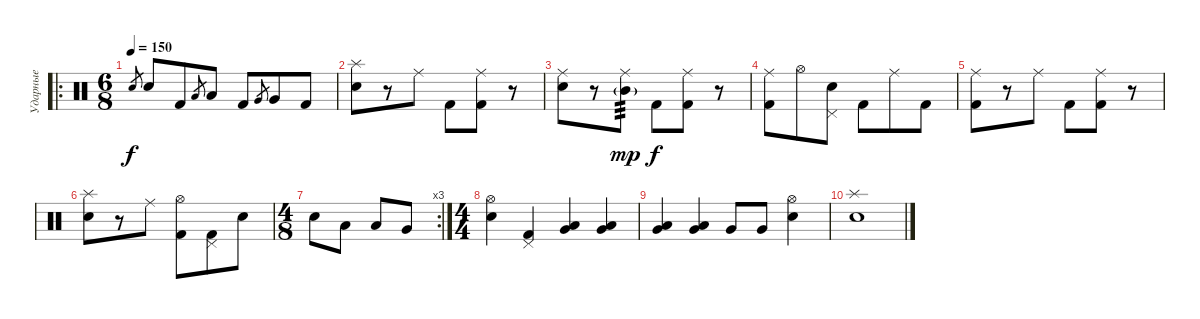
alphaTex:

\track ("Ударные" "Ударные") {instrument percussion}
\staff {score}
\articulation defaults
\ro
\ts (6 8)
\tempo 150
\clef neutral
\ks c "Electric Snare (hit)".8{gr dy f} "Electric Snare (hit)".8 "Kick (hit) 2".8 "Low Tom (hit)".8{gr} "Low Tom (hit)".8 "Kick (hit) 2".8 "Very Low Tom (hit)".8{gr} "Very Low Tom (hit)".8 "Kick (hit) 2".8
|
("Splash (hit)" "Electric Snare (hit)").8 r.8 "Ride (middle)".8 "Kick (hit) 2".8 ("Ride (middle)" "Kick (hit) 2").8 r.8 |
("Ride (middle)" "Electric Snare (hit)").8 r.8 ("Ride (middle)" "Mid Tom (hit)"{g}).8{tp 3 dy mp} "Kick (hit) 2".8{dy f} ("Ride (middle)" "Kick (hit) 2").8 r.8 |
("Ride (middle)" "Kick (hit) 2").8 "Hi-Hat (open)".8 ("Pedal Hi-Hat (hit)" "Electric Snare (hit)").8 "Kick (hit) 2".8 "Ride (middle)".8 "Kick (hit) 2".8 |
("Ride (middle)" "Kick (hit) 2").8 r.8 "Ride (middle)".8 "Kick (hit) 2".8 ("Ride (middle)" "Kick (hit) 2").8 r.8 |
("Splash (hit)" "Electric Snare (hit)").8 r.8 "Ride (middle)".8 ("Hi-Hat (open)" "Kick (hit) 2").8 ("Pedal Hi-Hat (hit)" "Kick (hit) 2").8 "Electric Snare (hit)".8 |
\rc 3
\ts (4 8)
"Electric Snare (hit)".8 "Low Tom (hit)".8 "Low Tom (hit)".8 "Very Low Tom (hit)".8 |
\ts (4 4)
("Hi-Hat (open)" "Electric Snare (hit)").4 ("Pedal Hi-Hat (hit)" "Kick (hit) 2").4 ("Low Tom (hit)" "Very Low Tom (hit)").4 ("Low Tom (hit)" "Very Low Tom (hit)").4 |
("Low Tom (hit)" "Very Low Tom (hit)").4 ("Low Tom (hit)" "Very Low Tom (hit)").4 "Very Low Tom (hit)".8 "Very Low Tom (hit)".8 ("Hi-Hat (open)" "Electric Snare (hit)").4 |
("Splash (hit)" "Electric Snare (hit)").1
